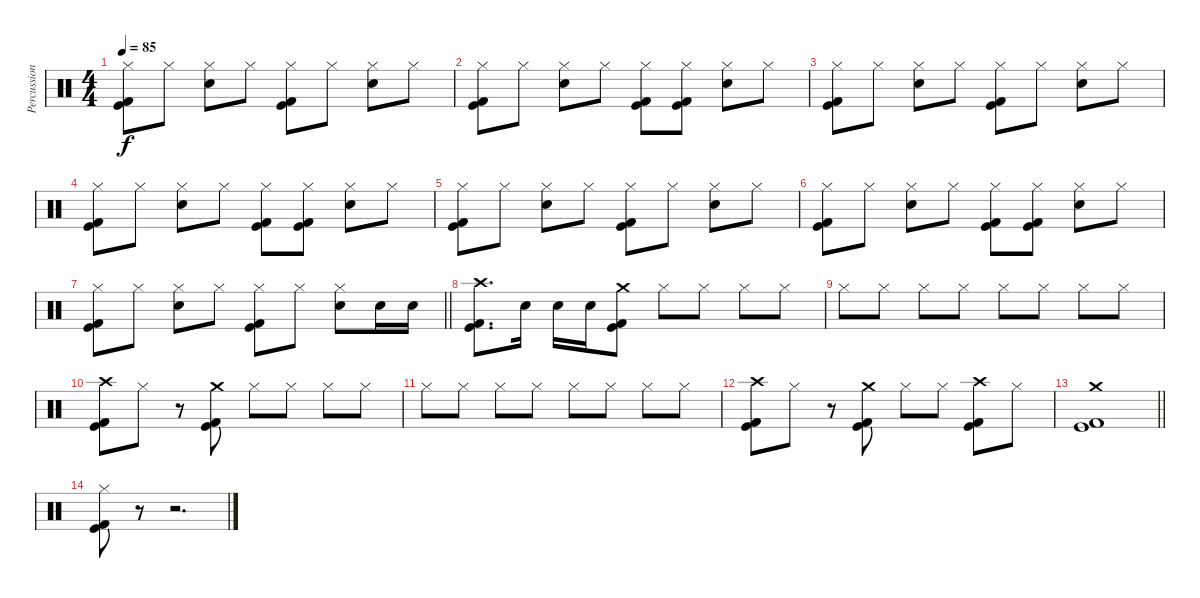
\track ("Percussion" "Percussion") {instrument percussion}
\staff {score}
\articulation defaults
\ts (4 4)
\tempo 85
\clef neutral
\ks c
("Hi-Hat (closed)" "Kick (hit)" "Kick (hit) 2").8{dy f} "Hi-Hat (closed)".8 ("Hi-Hat (closed)" "Electric Snare (hit)").8 "Hi-Hat (closed)".8 ("Hi-Hat (closed)" "Kick (hit)" "Kick (hit) 2").8 "Hi-Hat (closed)".8 ("Hi-Hat (closed)" "Electric Snare (hit)").8 "Hi-Hat (closed)".8 |
("Hi-Hat (closed)" "Kick (hit)" "Kick (hit) 2").8 "Hi-Hat (closed)".8 ("Hi-Hat (closed)" "Electric Snare (hit)").8 "Hi-Hat (closed)".8 ("Hi-Hat (closed)" "Kick (hit)" "Kick (hit) 2").8 ("Hi-Hat (closed)" "Kick (hit)" "Kick (hit) 2").8 ("Hi-Hat (closed)" "Electric Snare (hit)").8 "Hi-Hat (closed)".8 |
("Hi-Hat (closed)" "Kick (hit)" "Kick (hit) 2").8 "Hi-Hat (closed)".8 ("Hi-Hat (closed)" "Electric Snare (hit)").8 "Hi-Hat (closed)".8 ("Hi-Hat (closed)" "Kick (hit)" "Kick (hit) 2").8 "Hi-Hat (closed)".8 ("Hi-Hat (closed)" "Electric Snare (hit)").8 "Hi-Hat (closed)".8 |
("Hi-Hat (closed)" "Kick (hit)" "Kick (hit) 2").8 "Hi-Hat (closed)".8 ("Hi-Hat (closed)" "Electric Snare (hit)").8 "Hi-Hat (closed)".8 ("Hi-Hat (closed)" "Kick (hit)" "Kick (hit) 2").8 ("Hi-Hat (closed)" "Kick (hit)" "Kick (hit) 2").8 ("Hi-Hat (closed)" "Electric Snare (hit)").8 "Hi-Hat (closed)".8 |
("Hi-Hat (closed)" "Kick (hit)" "Kick (hit) 2").8 "Hi-Hat (closed)".8 ("Hi-Hat (closed)" "Electric Snare (hit)").8 "Hi-Hat (closed)".8 ("Hi-Hat (closed)" "Kick (hit)" "Kick (hit) 2").8 "Hi-Hat (closed)".8 ("Hi-Hat (closed)" "Electric Snare (hit)").8 "Hi-Hat (closed)".8 |
("Hi-Hat (closed)" "Kick (hit)" "Kick (hit) 2").8 "Hi-Hat (closed)".8 ("Hi-Hat (closed)" "Electric Snare (hit)").8 "Hi-Hat (closed)".8 ("Hi-Hat (closed)" "Kick (hit)" "Kick (hit) 2").8 ("Hi-Hat (closed)" "Kick (hit)" "Kick (hit) 2").8 ("Hi-Hat (closed)" "Electric Snare (hit)").8 "Hi-Hat (closed)".8 |
\barLineRight lightlight
("Hi-Hat (closed)" "Kick (hit)" "Kick (hit) 2").8 "Hi-Hat (closed)".8 ("Hi-Hat (closed)" "Electric Snare (hit)").8 "Hi-Hat (closed)".8 ("Hi-Hat (closed)" "Kick (hit)" "Kick (hit) 2").8 "Hi-Hat (closed)".8 ("Hi-Hat (closed)" "Electric Snare (hit)").8 "Electric Snare (hit)".16 "Electric Snare (hit)".16 |
\section ("" "")
("Crash high (hit)" "Kick (hit)" "Kick (hit) 2").8{d} "Electric Snare (hit)".16 "Electric Snare (hit)".16 "Electric Snare (hit)".16 ("Crash medium (hit)" "Kick (hit)" "Kick (hit) 2").8 "Hi-Hat (closed)".8 "Hi-Hat (closed)".8 "Hi-Hat (closed)".8 "Hi-Hat (closed)".8 |
"Hi-Hat (closed)".8 "Hi-Hat (closed)".8 "Hi-Hat (closed)".8 "Hi-Hat (closed)".8 "Hi-Hat (closed)".8 "Hi-Hat (closed)".8 "Hi-Hat (closed)".8 "Hi-Hat (closed)".8 |
("Crash high (hit)" "Kick (hit)" "Kick (hit) 2").8 "Hi-Hat (closed)".8 r.8 ("Crash medium (hit)" "Kick (hit)" "Kick (hit) 2").8 "Hi-Hat (closed)".8 "Hi-Hat (closed)".8 "Hi-Hat (closed)".8 "Hi-Hat (closed)".8 |
"Hi-Hat (closed)".8 "Hi-Hat (closed)".8 "Hi-Hat (closed)".8 "Hi-Hat (closed)".8 "Hi-Hat (closed)".8 "Hi-Hat (closed)".8 "Hi-Hat (closed)".8 "Hi-Hat (closed)".8 |
("Crash high (hit)" "Kick (hit)" "Kick (hit) 2").8 "Hi-Hat (closed)".8 r.8 ("Crash medium (hit)" "Kick (hit)" "Kick (hit) 2").8 "Hi-Hat (closed)".8 "Hi-Hat (closed)".8 ("Crash high (hit)" "Kick (hit)" "Kick (hit) 2").8 "Hi-Hat (closed)".8 |
\barLineRight lightlight
("Crash medium (hit)" "Kick (hit)" "Kick (hit) 2").1 |
\section ("" "")
("Hi-Hat (closed)" "Kick (hit)" "Kick (hit) 2").8 r.8 r.2{d}
